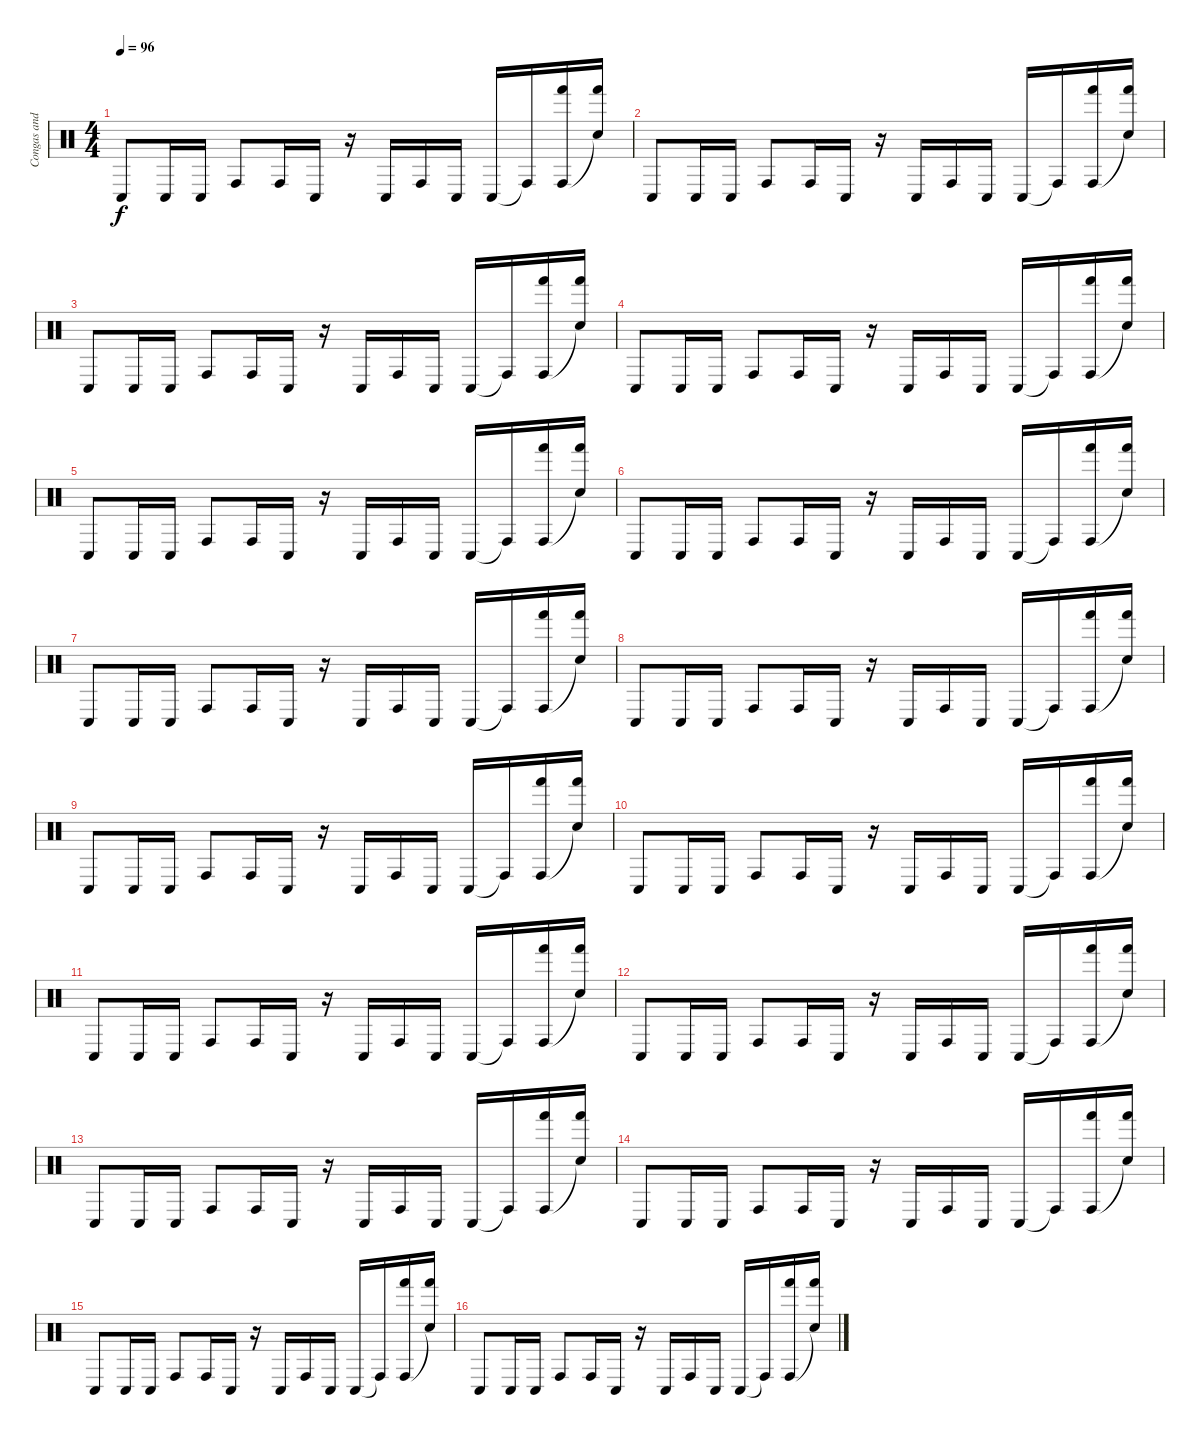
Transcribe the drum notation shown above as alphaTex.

\track ("Congas and Bongos" "Congas and") {instrument percussion}
\staff {score}
\articulation defaults
\ts (4 4)
\tempo 96
\clef neutral
\ks c "Conga low (hit)".8{dy f} "Conga low (hit)".16 "Conga low (hit)".16 "Conga high (hit)".8 "Conga high (hit)".16 "Conga low (hit)".16
r.16 "Conga low (hit)".16 "Conga high (hit)".16 "Conga low (hit)".16 "Conga low (hit)".16 "Conga high (hit)"{t}.16 ("Conga high (hit)" "Hand (hit)").16 ("Snare (hit)"{t} "Hand (hit)").16 |
"Conga low (hit)".8 "Conga low (hit)".16 "Conga low (hit)".16 "Conga high (hit)".8 "Conga high (hit)".16 "Conga low (hit)".16 r.16 "Conga low (hit)".16 "Conga high (hit)".16 "Conga low (hit)".16 "Conga low (hit)".16 "Conga high (hit)"{t}.16 ("Conga high (hit)" "Hand (hit)").16 ("Snare (hit)"{t} "Hand (hit)").16 |
"Conga low (hit)".8 "Conga low (hit)".16 "Conga low (hit)".16 "Conga high (hit)".8 "Conga high (hit)".16 "Conga low (hit)".16 r.16 "Conga low (hit)".16 "Conga high (hit)".16 "Conga low (hit)".16 "Conga low (hit)".16 "Conga high (hit)"{t}.16 ("Conga high (hit)" "Hand (hit)").16 ("Snare (hit)"{t} "Hand (hit)").16 |
"Conga low (hit)".8 "Conga low (hit)".16 "Conga low (hit)".16 "Conga high (hit)".8 "Conga high (hit)".16 "Conga low (hit)".16 r.16 "Conga low (hit)".16 "Conga high (hit)".16 "Conga low (hit)".16 "Conga low (hit)".16 "Conga high (hit)"{t}.16 ("Conga high (hit)" "Hand (hit)").16 ("Snare (hit)"{t} "Hand (hit)").16 |
"Conga low (hit)".8 "Conga low (hit)".16 "Conga low (hit)".16 "Conga high (hit)".8 "Conga high (hit)".16 "Conga low (hit)".16 r.16 "Conga low (hit)".16 "Conga high (hit)".16 "Conga low (hit)".16 "Conga low (hit)".16 "Conga high (hit)"{t}.16 ("Conga high (hit)" "Hand (hit)").16 ("Snare (hit)"{t} "Hand (hit)").16 |
"Conga low (hit)".8 "Conga low (hit)".16 "Conga low (hit)".16 "Conga high (hit)".8 "Conga high (hit)".16 "Conga low (hit)".16 r.16 "Conga low (hit)".16 "Conga high (hit)".16 "Conga low (hit)".16 "Conga low (hit)".16 "Conga high (hit)"{t}.16 ("Conga high (hit)" "Hand (hit)").16 ("Snare (hit)"{t} "Hand (hit)").16 |
"Conga low (hit)".8 "Conga low (hit)".16 "Conga low (hit)".16 "Conga high (hit)".8 "Conga high (hit)".16 "Conga low (hit)".16 r.16 "Conga low (hit)".16 "Conga high (hit)".16 "Conga low (hit)".16 "Conga low (hit)".16 "Conga high (hit)"{t}.16 ("Conga high (hit)" "Hand (hit)").16 ("Snare (hit)"{t} "Hand (hit)").16 |
"Conga low (hit)".8 "Conga low (hit)".16 "Conga low (hit)".16 "Conga high (hit)".8 "Conga high (hit)".16 "Conga low (hit)".16 r.16 "Conga low (hit)".16 "Conga high (hit)".16 "Conga low (hit)".16 "Conga low (hit)".16 "Conga high (hit)"{t}.16 ("Conga high (hit)" "Hand (hit)").16 ("Snare (hit)"{t} "Hand (hit)").16 |
"Conga low (hit)".8 "Conga low (hit)".16 "Conga low (hit)".16 "Conga high (hit)".8 "Conga high (hit)".16 "Conga low (hit)".16 r.16 "Conga low (hit)".16 "Conga high (hit)".16 "Conga low (hit)".16 "Conga low (hit)".16 "Conga high (hit)"{t}.16 ("Conga high (hit)" "Hand (hit)").16 ("Snare (hit)"{t} "Hand (hit)").16 |
"Conga low (hit)".8 "Conga low (hit)".16 "Conga low (hit)".16 "Conga high (hit)".8 "Conga high (hit)".16 "Conga low (hit)".16 r.16 "Conga low (hit)".16 "Conga high (hit)".16 "Conga low (hit)".16 "Conga low (hit)".16 "Conga high (hit)"{t}.16 ("Conga high (hit)" "Hand (hit)").16 ("Snare (hit)"{t} "Hand (hit)").16 |
"Conga low (hit)".8 "Conga low (hit)".16 "Conga low (hit)".16 "Conga high (hit)".8 "Conga high (hit)".16 "Conga low (hit)".16 r.16 "Conga low (hit)".16 "Conga high (hit)".16 "Conga low (hit)".16 "Conga low (hit)".16 "Conga high (hit)"{t}.16 ("Conga high (hit)" "Hand (hit)").16 ("Snare (hit)"{t} "Hand (hit)").16 |
"Conga low (hit)".8 "Conga low (hit)".16 "Conga low (hit)".16 "Conga high (hit)".8 "Conga high (hit)".16 "Conga low (hit)".16 r.16 "Conga low (hit)".16 "Conga high (hit)".16 "Conga low (hit)".16 "Conga low (hit)".16 "Conga high (hit)"{t}.16 ("Conga high (hit)" "Hand (hit)").16 ("Snare (hit)"{t} "Hand (hit)").16 |
"Conga low (hit)".8 "Conga low (hit)".16 "Conga low (hit)".16 "Conga high (hit)".8 "Conga high (hit)".16 "Conga low (hit)".16 r.16 "Conga low (hit)".16 "Conga high (hit)".16 "Conga low (hit)".16 "Conga low (hit)".16 "Conga high (hit)"{t}.16 ("Conga high (hit)" "Hand (hit)").16 ("Snare (hit)"{t} "Hand (hit)").16 |
"Conga low (hit)".8 "Conga low (hit)".16 "Conga low (hit)".16 "Conga high (hit)".8 "Conga high (hit)".16 "Conga low (hit)".16 r.16 "Conga low (hit)".16 "Conga high (hit)".16 "Conga low (hit)".16 "Conga low (hit)".16 "Conga high (hit)"{t}.16 ("Conga high (hit)" "Hand (hit)").16 ("Snare (hit)"{t} "Hand (hit)").16 |
"Conga low (hit)".8 "Conga low (hit)".16 "Conga low (hit)".16 "Conga high (hit)".8 "Conga high (hit)".16 "Conga low (hit)".16 r.16 "Conga low (hit)".16 "Conga high (hit)".16 "Conga low (hit)".16 "Conga low (hit)".16 "Conga high (hit)"{t}.16 ("Conga high (hit)" "Hand (hit)").16 ("Snare (hit)"{t} "Hand (hit)").16 |
"Conga low (hit)".8 "Conga low (hit)".16 "Conga low (hit)".16 "Conga high (hit)".8 "Conga high (hit)".16 "Conga low (hit)".16 r.16 "Conga low (hit)".16 "Conga high (hit)".16 "Conga low (hit)".16 "Conga low (hit)".16 "Conga high (hit)"{t}.16 ("Conga high (hit)" "Hand (hit)").16 ("Snare (hit)"{t} "Hand (hit)").16
